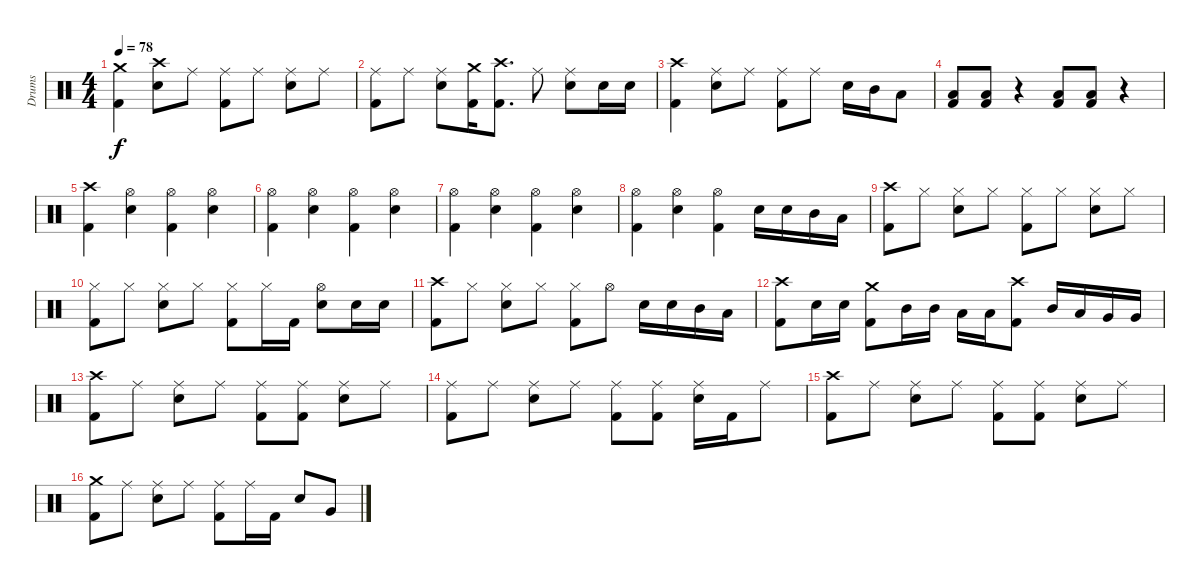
\track ("Drums" "Drums") {instrument percussion}
\staff {score}
\articulation defaults
\ts (4 4)
\tempo 78
\clef neutral
\ks c
("Crash medium (hit)" "Kick (hit) 2").4{dy f} ("Crash high (hit)" "Snare (hit) 2").8 "Ride (middle)".8 ("Ride (middle)" "Kick (hit) 2").8 "Ride (middle)".8 ("Ride (middle)" "Snare (hit) 2").8 "Ride (middle)".8 |
("Ride (middle)" "Kick (hit) 2").8 "Ride (middle)".8 ("Ride (middle)" "Snare (hit) 2").8 ("Crash medium (hit)" "Kick (hit) 2").16 ("Crash high (hit)" "Kick (hit) 2").8{d} "Ride (middle)".8 ("Ride (middle)" "Snare (hit) 2").8 "Snare (hit) 2".16 "Snare (hit) 2".16 |
("Crash high (hit)" "Kick (hit) 2").4 ("Ride (middle)" "Snare (hit) 2").8 "Ride (middle)".8 ("Ride (middle)" "Kick (hit) 2").8 "Ride (middle)".8 "Snare (hit) 2".16 "Mid Tom (hit)".16 "Low Tom (hit)".8 |
("Low Tom (hit)" "Kick (hit) 2").8 ("Low Tom (hit)" "Kick (hit) 2").8 r.4 ("Low Tom (hit)" "Kick (hit) 2").8 ("Low Tom (hit)" "Kick (hit) 2").8 r.4 |
("Crash high (hit)" "Kick (hit) 2").4 ("Hi-Hat (open)" "Snare (hit) 2").4 ("Hi-Hat (open)" "Kick (hit) 2").4 ("Hi-Hat (open)" "Snare (hit) 2").4 |
("Hi-Hat (open)" "Kick (hit) 2").4 ("Hi-Hat (open)" "Snare (hit) 2").4 ("Hi-Hat (open)" "Kick (hit) 2").4 ("Hi-Hat (open)" "Snare (hit) 2").4 |
("Hi-Hat (open)" "Kick (hit) 2").4 ("Hi-Hat (open)" "Snare (hit) 2").4 ("Hi-Hat (open)" "Kick (hit) 2").4 ("Hi-Hat (open)" "Snare (hit) 2").4 |
("Hi-Hat (open)" "Kick (hit) 2").4 ("Hi-Hat (open)" "Snare (hit) 2").4 ("Hi-Hat (open)" "Kick (hit) 2").4 "Snare (hit) 2".16 "Snare (hit) 2".16 "Mid Tom (hit)".16 "Low Tom (hit)".16 |
("Crash high (hit)" "Kick (hit) 2").8 "Hi-Hat (closed)".8 ("Hi-Hat (closed)" "Snare (hit) 2").8 "Hi-Hat (closed)".8 ("Hi-Hat (closed)" "Kick (hit) 2").8 "Hi-Hat (closed)".8 ("Hi-Hat (closed)" "Snare (hit) 2").8 "Hi-Hat (closed)".8 |
("Hi-Hat (closed)" "Kick (hit) 2").8 "Hi-Hat (closed)".8 ("Hi-Hat (closed)" "Snare (hit) 2").8 "Hi-Hat (closed)".8 ("Hi-Hat (closed)" "Kick (hit) 2").8 "Hi-Hat (closed)".16 "Kick (hit) 2".16 ("Hi-Hat (open)" "Snare (hit) 2").8 "Snare (hit) 2".16 "Snare (hit) 2".16 |
("Crash high (hit)" "Kick (hit) 2").8 "Hi-Hat (closed)".8 ("Hi-Hat (closed)" "Snare (hit) 2").8 "Hi-Hat (closed)".8 ("Hi-Hat (closed)" "Kick (hit) 2").8 "Hi-Hat (open)".8 "Snare (hit) 2".16 "Snare (hit) 2".16 "Mid Tom (hit)".16 "Low Tom (hit)".16 |
("Crash high (hit)" "Kick (hit) 2").8 "Snare (hit) 2".16 "Snare (hit) 2".16 ("Crash medium (hit)" "Kick (hit) 2").8 "Mid Tom (hit)".16 "Mid Tom (hit)".16 "Low Tom (hit)".16 "Low Tom (hit)".16 ("Crash high (hit)" "Kick (hit) 2").8 "Mid Tom (hit)".16 "Low Tom (hit)".16 "Very Low Tom (hit)".16 "Very Low Tom (hit)".16 |
("Crash high (hit)" "Kick (hit) 2").8 "Ride (middle)".8 ("Ride (middle)" "Snare (hit) 2").8 "Ride (middle)".8 ("Ride (middle)" "Kick (hit) 2").8 ("Ride (middle)" "Kick (hit) 2").8 ("Ride (middle)" "Snare (hit) 2").8 "Ride (middle)".8 |
("Ride (middle)" "Kick (hit) 2").8 "Ride (middle)".8 ("Ride (middle)" "Snare (hit) 2").8 "Ride (middle)".8 ("Ride (middle)" "Kick (hit) 2").8 ("Ride (middle)" "Kick (hit) 2").8 ("Ride (middle)" "Snare (hit) 2").16 "Kick (hit) 2".16 "Ride (middle)".8 |
("Crash high (hit)" "Kick (hit) 2").8 "Ride (middle)".8 ("Ride (middle)" "Snare (hit) 2").8 "Ride (middle)".8 ("Ride (middle)" "Kick (hit) 2").8 ("Ride (middle)" "Kick (hit) 2").8 ("Ride (middle)" "Snare (hit) 2").8 "Ride (middle)".8 |
("Crash medium (hit)" "Kick (hit) 2").8 "Ride (middle)".8 ("Ride (middle)" "Snare (hit) 2").8 "Ride (middle)".8 ("Ride (middle)" "Kick (hit) 2").8 "Ride (middle)".16 "Kick (hit) 2".16 "Snare (hit) 2".8 "Very Low Tom (hit)".8
